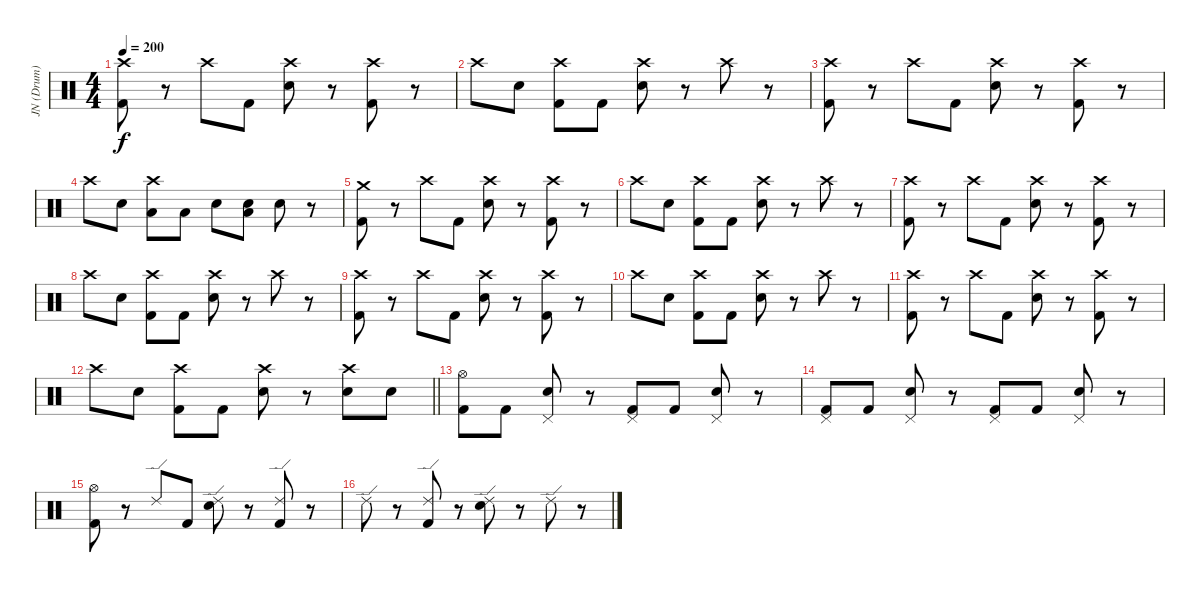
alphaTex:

\track ("JN (Drum)" "JN (Drum)") {instrument percussion}
\staff {score}
\articulation defaults
\ts (4 4)
\tempo 200
\clef neutral
\ks c
("Crash high (hit)" "Kick (hit) 2").8{dy f} r.8 "Crash high (hit)".8 "Kick (hit) 2".8 ("Crash high (hit)" "Electric Snare (hit)").8 r.8 ("Crash high (hit)" "Kick (hit) 2").8 r.8 |
"Crash high (hit)".8 "Electric Snare (hit)".8 ("Crash high (hit)" "Kick (hit) 2").8 "Kick (hit) 2".8 ("Crash high (hit)" "Electric Snare (hit)").8 r.8 "Crash high (hit)".8 r.8 |
("Crash high (hit)" "Kick (hit) 2").8 r.8 "Crash high (hit)".8 "Kick (hit) 2".8 ("Crash high (hit)" "Electric Snare (hit)").8 r.8 ("Crash high (hit)" "Kick (hit) 2").8 r.8 |
"Crash high (hit)".8 "Electric Snare (hit)".8 ("Crash high (hit)" "Low Tom (hit)").8 "Low Tom (hit)".8 "Electric Snare (hit)".8 ("Electric Snare (hit)" "Low Tom (hit)").8 "Electric Snare (hit)".8 r.8 |
("Crash medium (hit)" "Kick (hit) 2").8 r.8 "Crash high (hit)".8 "Kick (hit) 2".8 ("Crash high (hit)" "Electric Snare (hit)").8 r.8 ("Crash high (hit)" "Kick (hit) 2").8 r.8 |
"Crash high (hit)".8 "Electric Snare (hit)".8 ("Crash high (hit)" "Kick (hit) 2").8 "Kick (hit) 2".8 ("Crash high (hit)" "Electric Snare (hit)").8 r.8 "Crash high (hit)".8 r.8 |
("Crash high (hit)" "Kick (hit) 2").8 r.8 "Crash high (hit)".8 "Kick (hit) 2".8 ("Crash high (hit)" "Electric Snare (hit)").8 r.8 ("Crash high (hit)" "Kick (hit) 2").8 r.8 |
"Crash high (hit)".8 "Electric Snare (hit)".8 ("Crash high (hit)" "Kick (hit) 2").8 "Kick (hit) 2".8 ("Crash high (hit)" "Electric Snare (hit)").8 r.8 "Crash high (hit)".8 r.8 |
("Crash high (hit)" "Kick (hit) 2").8 r.8 "Crash high (hit)".8 "Kick (hit) 2".8 ("Crash high (hit)" "Electric Snare (hit)").8 r.8 ("Crash high (hit)" "Kick (hit) 2").8 r.8 |
"Crash high (hit)".8 "Electric Snare (hit)".8 ("Crash high (hit)" "Kick (hit) 2").8 "Kick (hit) 2".8 ("Crash high (hit)" "Electric Snare (hit)").8 r.8 "Crash high (hit)".8 r.8 |
("Crash high (hit)" "Kick (hit) 2").8 r.8 "Crash high (hit)".8 "Kick (hit) 2".8 ("Crash high (hit)" "Electric Snare (hit)").8 r.8 ("Crash high (hit)" "Kick (hit) 2").8 r.8 |
\barLineRight lightlight "Crash high (hit)".8 "Electric Snare (hit)".8
("Crash high (hit)" "Kick (hit) 2").8 "Kick (hit) 2".8 ("Crash high (hit)" "Electric Snare (hit)").8 r.8 ("Crash high (hit)" "Electric Snare (hit)").8 "Electric Snare (hit)".8 |
("Hi-Hat (open)" "Kick (hit) 2").8 "Kick (hit) 2".8 ("Pedal Hi-Hat (hit)" "Electric Snare (hit)").8 r.8 ("Pedal Hi-Hat (hit)" "Kick (hit) 2").8 "Kick (hit) 2".8 ("Pedal Hi-Hat (hit)" "Electric Snare (hit)").8 r.8 |
("Pedal Hi-Hat (hit)" "Kick (hit) 2").8 "Kick (hit) 2".8 ("Pedal Hi-Hat (hit)" "Electric Snare (hit)").8 r.8 ("Pedal Hi-Hat (hit)" "Kick (hit) 2").8 "Kick (hit) 2".8 ("Pedal Hi-Hat (hit)" "Electric Snare (hit)").8 r.8 |
("Hi-Hat (open)" "Kick (hit) 2").8 r.8 "Ride (edge) 2".8 "Kick (hit) 2".8 ("Ride (edge) 2" "Electric Snare (hit)").8 r.8 ("Ride (edge) 2" "Kick (hit) 2").8 r.8 |
"Ride (edge) 2".8 r.8 ("Ride (edge) 2" "Kick (hit) 2").8 r.8 ("Ride (edge) 2" "Electric Snare (hit)").8 r.8 "Ride (edge) 2".8 r.8
